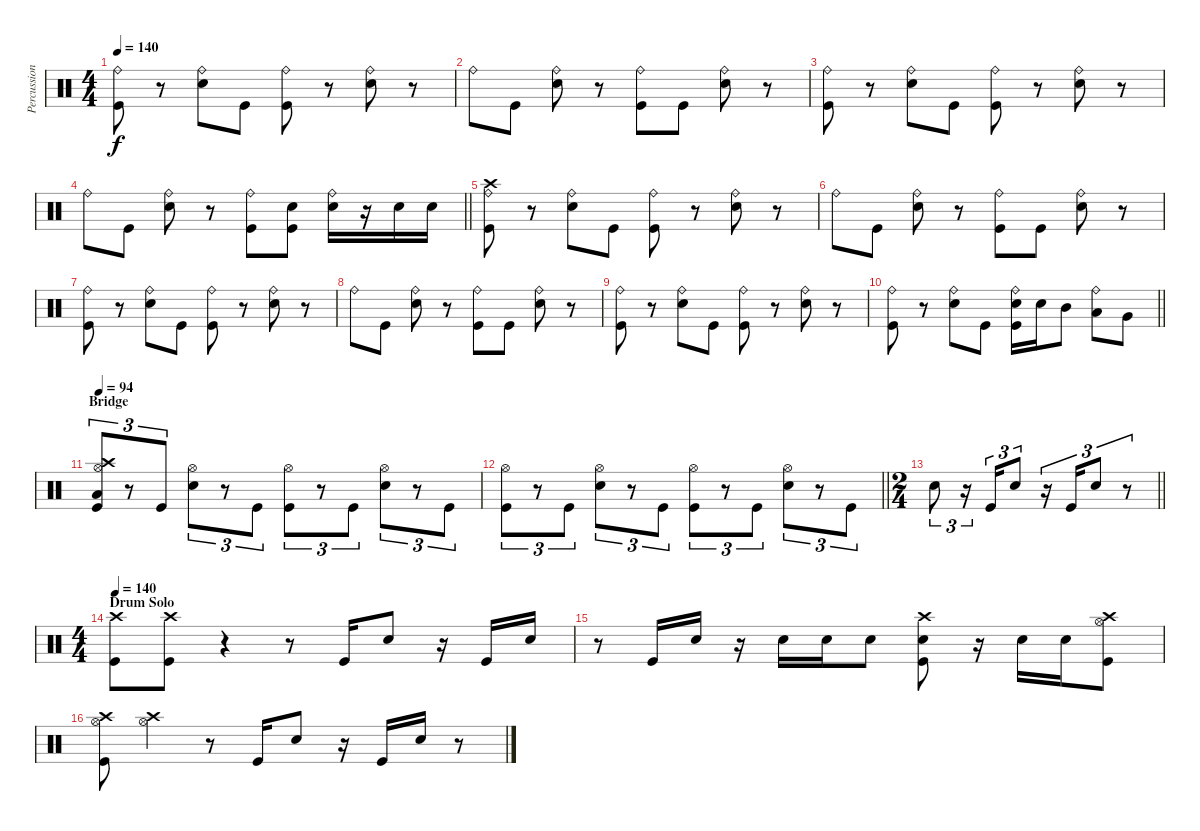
\track ("Percussion" "Percussion") {instrument percussion}
\staff {score}
\articulation defaults
\ts (4 4)
\tempo 140
\clef neutral
\ks c
("Ride (bell)" "Kick (hit)").8{dy f} r.8 ("Ride (bell)" "Snare (hit) 2").8 "Kick (hit)".8 ("Ride (bell)" "Kick (hit)").8 r.8 ("Ride (bell)" "Snare (hit) 2").8 r.8 |
"Ride (bell)".8 "Kick (hit)".8 ("Ride (bell)" "Snare (hit) 2").8 r.8 ("Ride (bell)" "Kick (hit)").8 "Kick (hit)".8 ("Ride (bell)" "Snare (hit) 2").8 r.8 |
("Ride (bell)" "Kick (hit)").8 r.8 ("Ride (bell)" "Snare (hit) 2").8 "Kick (hit)".8 ("Ride (bell)" "Kick (hit)").8 r.8 ("Ride (bell)" "Snare (hit) 2").8 r.8 |
\barLineRight lightlight "Ride (bell)".8 "Kick (hit)".8
("Ride (bell)" "Snare (hit) 2").8 r.8 ("Ride (bell)" "Kick (hit)").8 ("Snare (hit) 2" "Kick (hit)").8 ("Ride (bell)" "Snare (hit) 2").16 r.16 "Snare (hit) 2".16 "Snare (hit) 2".16 |
("Crash high (hit)" "Ride (bell)" "Kick (hit)").8 r.8 ("Ride (bell)" "Snare (hit) 2").8 "Kick (hit)".8 ("Ride (bell)" "Kick (hit)").8 r.8 ("Ride (bell)" "Snare (hit) 2").8 r.8 |
"Ride (bell)".8 "Kick (hit)".8 ("Ride (bell)" "Snare (hit) 2").8 r.8 ("Ride (bell)" "Kick (hit)").8 "Kick (hit)".8 ("Ride (bell)" "Snare (hit) 2").8 r.8 |
("Ride (bell)" "Kick (hit)").8 r.8 ("Ride (bell)" "Snare (hit) 2").8 "Kick (hit)".8 ("Ride (bell)" "Kick (hit)").8 r.8 ("Ride (bell)" "Snare (hit) 2").8 r.8 |
"Ride (bell)".8 "Kick (hit)".8 ("Ride (bell)" "Snare (hit) 2").8 r.8 ("Ride (bell)" "Kick (hit)").8 "Kick (hit)".8 ("Ride (bell)" "Snare (hit) 2").8 r.8 |
("Ride (bell)" "Kick (hit)").8 r.8 ("Ride (bell)" "Snare (hit) 2").8 "Kick (hit)".8 ("Ride (bell)" "Kick (hit)").8 r.8 ("Ride (bell)" "Snare (hit) 2").8 r.8 |
\barLineRight lightlight
("Ride (bell)" "Kick (hit)").8 r.8 ("Ride (bell)" "Snare (hit) 2").8 "Kick (hit)".8 ("Ride (bell)" "Snare (hit) 2" "Kick (hit)").16 "Snare (hit) 2".16 "Mid Tom (hit)".8 ("Ride (bell)" "Low Tom (hit)").8 "Very Low Tom (hit)".8 |
\section ("" "Bridge")
\tempo 94
("Crash high (hit)" "Hi-Hat (open)" "Low Floor Tom (hit)" "Kick (hit)").8{tu (3 2)} r.8{tu (3 2)} "Kick (hit)".8{tu (3 2)} ("Hi-Hat (open)" "Snare (hit) 2").8{tu (3 2)} r.8{tu (3 2)} "Kick (hit)".8{tu (3 2)} ("Hi-Hat (open)" "Kick (hit)").8{tu (3 2)} r.8{tu (3 2)} "Kick (hit)".8{tu (3 2)} ("Hi-Hat (open)" "Snare (hit) 2").8{tu (3 2)} r.8{tu (3 2)} "Kick (hit)".8{tu (3 2)} |
\barLineRight lightlight
("Hi-Hat (open)" "Kick (hit)").8{tu (3 2)} r.8{tu (3 2)} "Kick (hit)".8{tu (3 2)} ("Hi-Hat (open)" "Snare (hit) 2").8{tu (3 2)} r.8{tu (3 2)} "Kick (hit)".8{tu (3 2)} ("Hi-Hat (open)" "Kick (hit)").8{tu (3 2)} r.8{tu (3 2)} "Kick (hit)".8{tu (3 2)} ("Hi-Hat (open)" "Snare (hit) 2").8{tu (3 2)} r.8{tu (3 2)} "Kick (hit)".8{tu (3 2)} |
\ts (2 4)
\barLineRight lightlight "Snare (hit) 2".8{tu (3 2)}
r.16{tu (3 2)} "Kick (hit)".16{tu (3 2)} "Snare (hit) 2".8{tu (3 2)} r.16{tu (3 2)} "Kick (hit)".16{tu (3 2)} "Snare (hit) 2".8{tu (3 2)} r.8{tu (3 2)} |
\ts (4 4)
\section ("" "Drum Solo")
\tempo 140
("Crash high (hit)" "Kick (hit)").8 ("Crash high (hit)" "Kick (hit)").8 r.4 r.8 "Kick (hit)".16 "Snare (hit) 2".8 r.16 "Kick (hit)".16 "Snare (hit) 2".16 |
r.8 "Kick (hit)".16 "Snare (hit) 2".16 r.16 "Snare (hit) 2".16 "Snare (hit) 2".16 "Snare (hit) 2".8 ("Crash high (hit)" "Snare (hit) 2" "Kick (hit)").8 r.16 "Snare (hit) 2".16 "Snare (hit) 2".16 ("Crash high (hit)" "Hi-Hat (open)" "Kick (hit)").8 |
("Crash high (hit)" "Hi-Hat (open)" "Kick (hit)").8 ("Crash high (hit)" "Hi-Hat (open)").4 r.8 "Kick (hit)".16 "Snare (hit) 2".8 r.16 "Kick (hit)".16 "Snare (hit) 2".16 r.8
